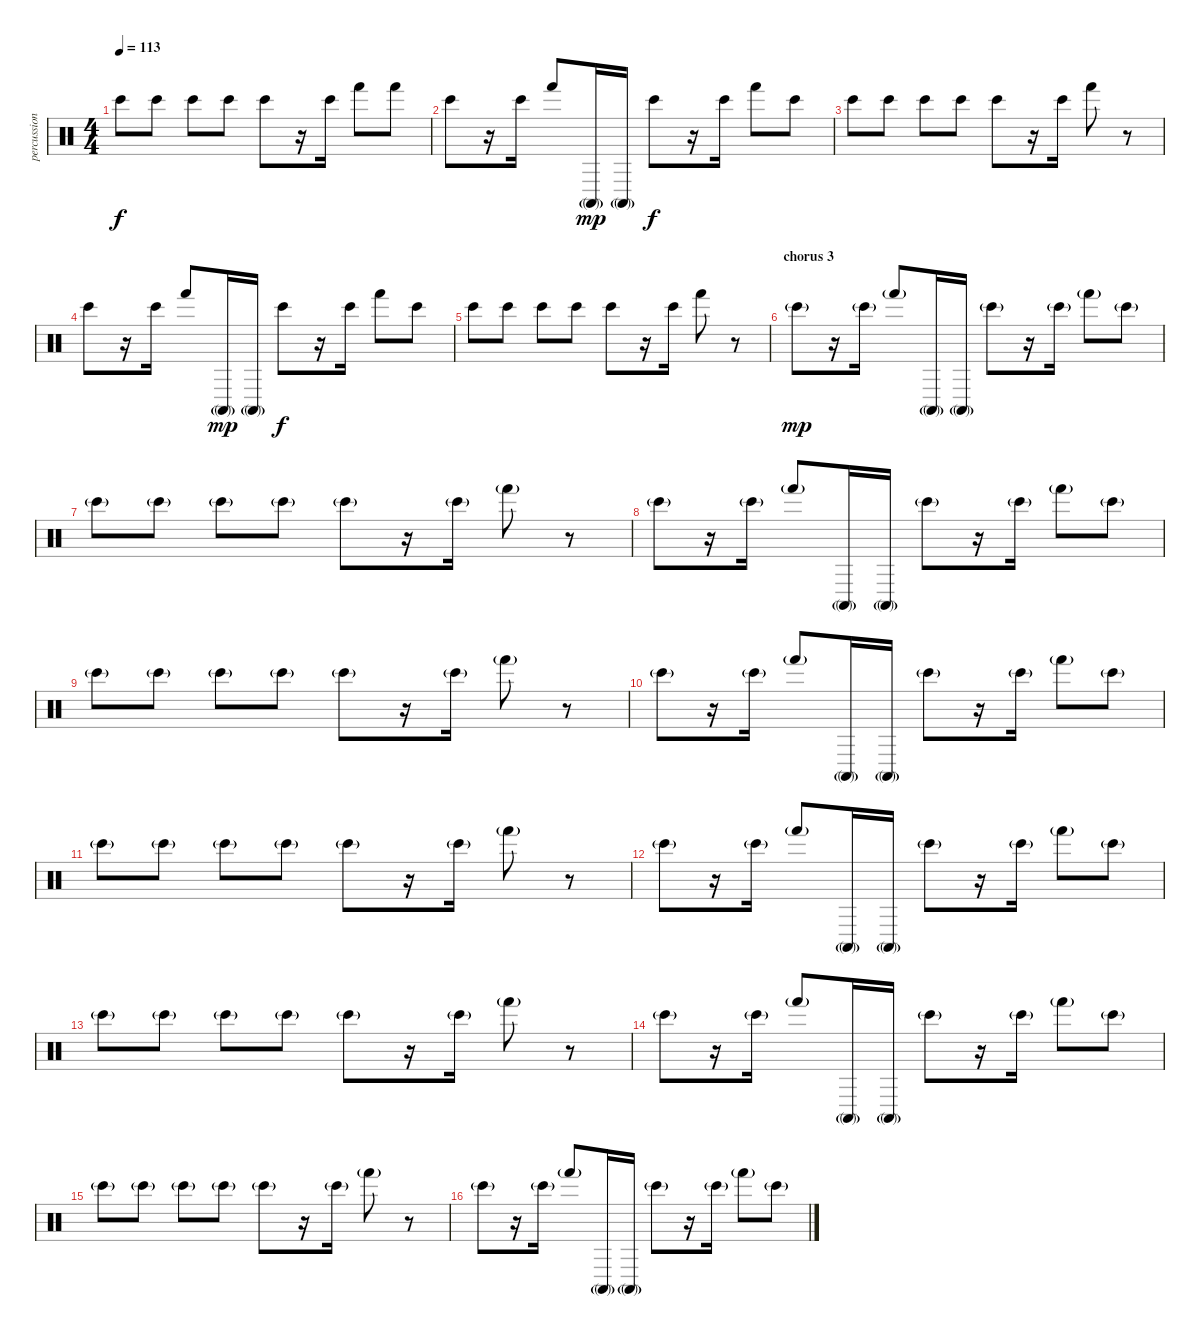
\track ("percussion" "percussion") {instrument percussion}
\staff {score}
\articulation defaults
\ts (4 4)
\tempo 113
\clef neutral
\ks c "Bongo High (hit)".8{dy f} "Bongo High (hit)".8 "Bongo High (hit)".8 "Bongo High (hit)".8 "Bongo High (hit)".8
r.16 "Bongo High (hit)".16 "Hand (hit)".8 "Hand (hit)".8 |
"Bongo High (hit)".8 r.16 "Bongo High (hit)".16 "Hand (hit)".8 "Conga high (mute)"{g}.16{dy mp} "Conga high (mute)"{g}.16 "Bongo High (hit)".8{dy f} r.16 "Bongo High (hit)".16 "Hand (hit)".8 "Bongo High (hit)".8 |
"Bongo High (hit)".8 "Bongo High (hit)".8 "Bongo High (hit)".8 "Bongo High (hit)".8 "Bongo High (hit)".8 r.16 "Bongo High (hit)".16 "Hand (hit)".8 r.8 |
"Bongo High (hit)".8 r.16 "Bongo High (hit)".16 "Hand (hit)".8 "Conga high (mute)"{g}.16{dy mp} "Conga high (mute)"{g}.16 "Bongo High (hit)".8{dy f} r.16 "Bongo High (hit)".16 "Hand (hit)".8 "Bongo High (hit)".8 |
"Bongo High (hit)".8 "Bongo High (hit)".8 "Bongo High (hit)".8 "Bongo High (hit)".8 "Bongo High (hit)".8 r.16 "Bongo High (hit)".16 "Hand (hit)".8 r.8 |
\section ("" "chorus 3")
"Bongo High (hit)"{g}.8{dy mp} r.16 "Bongo High (hit)"{g}.16 "Hand (hit)"{g}.8 "Conga high (mute)"{g}.16 "Conga high (mute)"{g}.16 "Bongo High (hit)"{g}.8 r.16 "Bongo High (hit)"{g}.16 "Hand (hit)"{g}.8 "Bongo High (hit)"{g}.8 |
"Bongo High (hit)"{g}.8 "Bongo High (hit)"{g}.8 "Bongo High (hit)"{g}.8 "Bongo High (hit)"{g}.8 "Bongo High (hit)"{g}.8 r.16 "Bongo High (hit)"{g}.16 "Hand (hit)"{g}.8 r.8 |
"Bongo High (hit)"{g}.8 r.16 "Bongo High (hit)"{g}.16 "Hand (hit)"{g}.8 "Conga high (mute)"{g}.16 "Conga high (mute)"{g}.16 "Bongo High (hit)"{g}.8 r.16 "Bongo High (hit)"{g}.16 "Hand (hit)"{g}.8 "Bongo High (hit)"{g}.8 |
"Bongo High (hit)"{g}.8 "Bongo High (hit)"{g}.8 "Bongo High (hit)"{g}.8 "Bongo High (hit)"{g}.8 "Bongo High (hit)"{g}.8 r.16 "Bongo High (hit)"{g}.16 "Hand (hit)"{g}.8 r.8 |
"Bongo High (hit)"{g}.8 r.16 "Bongo High (hit)"{g}.16 "Hand (hit)"{g}.8 "Conga high (mute)"{g}.16 "Conga high (mute)"{g}.16 "Bongo High (hit)"{g}.8 r.16 "Bongo High (hit)"{g}.16 "Hand (hit)"{g}.8 "Bongo High (hit)"{g}.8 |
"Bongo High (hit)"{g}.8 "Bongo High (hit)"{g}.8 "Bongo High (hit)"{g}.8 "Bongo High (hit)"{g}.8 "Bongo High (hit)"{g}.8 r.16 "Bongo High (hit)"{g}.16 "Hand (hit)"{g}.8 r.8 |
"Bongo High (hit)"{g}.8 r.16 "Bongo High (hit)"{g}.16 "Hand (hit)"{g}.8 "Conga high (mute)"{g}.16 "Conga high (mute)"{g}.16 "Bongo High (hit)"{g}.8 r.16 "Bongo High (hit)"{g}.16 "Hand (hit)"{g}.8 "Bongo High (hit)"{g}.8 |
"Bongo High (hit)"{g}.8 "Bongo High (hit)"{g}.8 "Bongo High (hit)"{g}.8 "Bongo High (hit)"{g}.8 "Bongo High (hit)"{g}.8 r.16 "Bongo High (hit)"{g}.16 "Hand (hit)"{g}.8 r.8 |
"Bongo High (hit)"{g}.8 r.16 "Bongo High (hit)"{g}.16 "Hand (hit)"{g}.8 "Conga high (mute)"{g}.16 "Conga high (mute)"{g}.16 "Bongo High (hit)"{g}.8 r.16 "Bongo High (hit)"{g}.16 "Hand (hit)"{g}.8 "Bongo High (hit)"{g}.8 |
"Bongo High (hit)"{g}.8 "Bongo High (hit)"{g}.8 "Bongo High (hit)"{g}.8 "Bongo High (hit)"{g}.8 "Bongo High (hit)"{g}.8 r.16 "Bongo High (hit)"{g}.16 "Hand (hit)"{g}.8 r.8 |
"Bongo High (hit)"{g}.8 r.16 "Bongo High (hit)"{g}.16 "Hand (hit)"{g}.8 "Conga high (mute)"{g}.16 "Conga high (mute)"{g}.16 "Bongo High (hit)"{g}.8 r.16 "Bongo High (hit)"{g}.16 "Hand (hit)"{g}.8 "Bongo High (hit)"{g}.8
